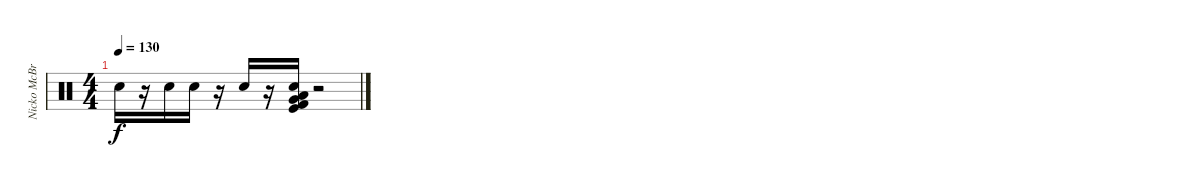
\track ("Nicko McBrain" "Nicko McBr") {instrument percussion}
\staff {score}
\articulation defaults
\ts (4 4)
\tempo 130
\clef neutral
\ks c "Snare (hit) 2".16{dy f}
r.16 "Snare (hit) 2".16 "Snare (hit) 2".16 r.16 "Snare (hit) 2".16 r.16 ("Low Tom (hit)" "Snare (hit) 2" "Very Low Tom (hit)" "Kick (hit) 2" "Kick (hit)").16 r.2
